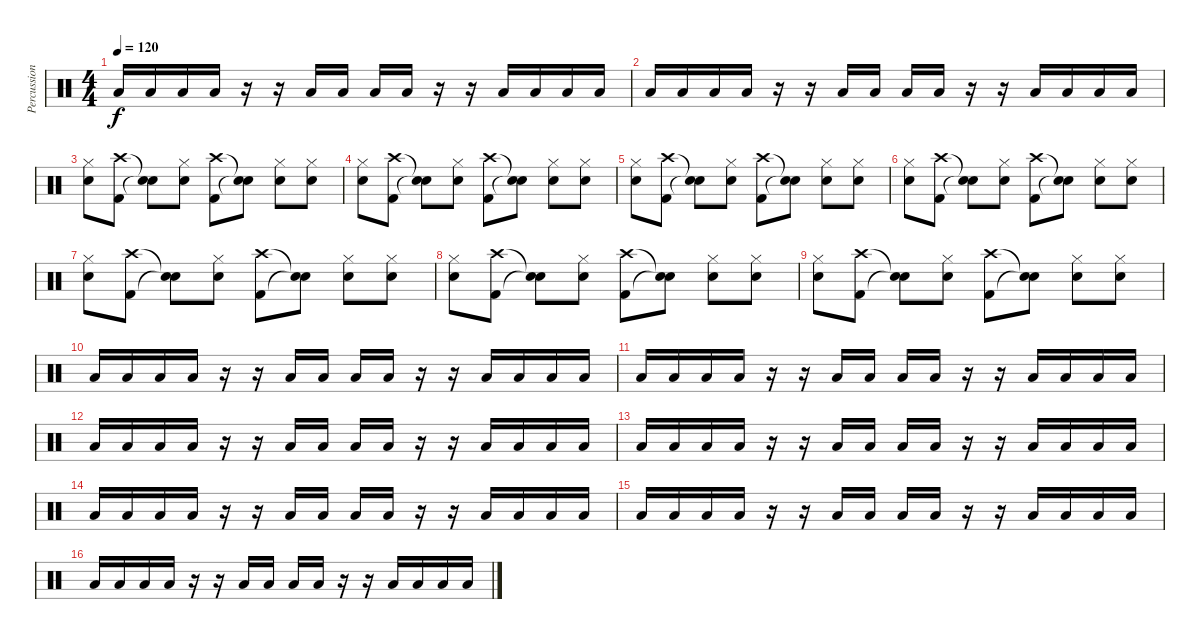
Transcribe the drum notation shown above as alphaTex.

\track ("Percussions" "Percussion") {instrument percussion}
\staff {score}
\articulation defaults
\ts (4 4)
\tempo 120
\clef neutral
\ks c "Low Floor Tom (hit)".16{dy f} "Low Floor Tom (hit)".16 "Low Floor Tom (hit)".16 "Low Floor Tom (hit)".16
r.16 r.16 "Low Floor Tom (hit)".16 "Low Floor Tom (hit)".16 "Low Floor Tom (hit)".16 "Low Floor Tom (hit)".16 r.16 r.16 "Low Floor Tom (hit)".16 "Low Floor Tom (hit)".16 "Low Floor Tom (hit)".16 "Low Floor Tom (hit)".16 |
"Low Floor Tom (hit)".16 "Low Floor Tom (hit)".16 "Low Floor Tom (hit)".16 "Low Floor Tom (hit)".16 r.16 r.16 "Low Floor Tom (hit)".16 "Low Floor Tom (hit)".16 "Low Floor Tom (hit)".16 "Low Floor Tom (hit)".16 r.16 r.16 "Low Floor Tom (hit)".16 "Low Floor Tom (hit)".16 "Low Floor Tom (hit)".16 "Low Floor Tom (hit)".16 |
("Hi-Hat (closed)" "Snare (hit) 2").8 ("Crash high (hit)" "Kick (hit) 2").8 ("Snare (hit)"{t} "Snare (hit)"{t}).8 ("Hi-Hat (closed)" "Snare (hit) 2").8 ("Crash high (hit)" "Kick (hit) 2").8 ("Snare (hit)"{t} "Snare (hit)"{t}).8 ("Hi-Hat (closed)" "Snare (hit) 2").8 ("Hi-Hat (closed)" "Snare (hit) 2").8 |
("Hi-Hat (closed)" "Snare (hit) 2").8 ("Crash high (hit)" "Kick (hit) 2").8 ("Snare (hit)"{t} "Snare (hit)"{t}).8 ("Hi-Hat (closed)" "Snare (hit) 2").8 ("Crash high (hit)" "Kick (hit) 2").8 ("Snare (hit)"{t} "Snare (hit)"{t}).8 ("Hi-Hat (closed)" "Snare (hit) 2").8 ("Hi-Hat (closed)" "Snare (hit) 2").8 |
("Hi-Hat (closed)" "Snare (hit) 2").8 ("Crash high (hit)" "Kick (hit) 2").8 ("Snare (hit)"{t} "Snare (hit)"{t}).8 ("Hi-Hat (closed)" "Snare (hit) 2").8 ("Crash high (hit)" "Kick (hit) 2").8 ("Snare (hit)"{t} "Snare (hit)"{t}).8 ("Hi-Hat (closed)" "Snare (hit) 2").8 ("Hi-Hat (closed)" "Snare (hit) 2").8 |
("Hi-Hat (closed)" "Snare (hit) 2").8 ("Crash high (hit)" "Kick (hit) 2").8 ("Snare (hit)"{t} "Snare (hit)"{t}).8 ("Hi-Hat (closed)" "Snare (hit) 2").8 ("Crash high (hit)" "Kick (hit) 2").8 ("Snare (hit)"{t} "Snare (hit)"{t}).8 ("Hi-Hat (closed)" "Snare (hit) 2").8 ("Hi-Hat (closed)" "Snare (hit) 2").8 |
("Hi-Hat (closed)" "Snare (hit) 2").8 ("Crash high (hit)" "Kick (hit) 2").8 ("Snare (hit)"{t} "Snare (hit)"{t}).8 ("Hi-Hat (closed)" "Snare (hit) 2").8 ("Crash high (hit)" "Kick (hit) 2").8 ("Snare (hit)"{t} "Snare (hit)"{t}).8 ("Hi-Hat (closed)" "Snare (hit) 2").8 ("Hi-Hat (closed)" "Snare (hit) 2").8 |
("Hi-Hat (closed)" "Snare (hit) 2").8 ("Crash high (hit)" "Kick (hit) 2").8 ("Snare (hit)"{t} "Snare (hit)"{t}).8 ("Hi-Hat (closed)" "Snare (hit) 2").8 ("Crash high (hit)" "Kick (hit) 2").8 ("Snare (hit)"{t} "Snare (hit)"{t}).8 ("Hi-Hat (closed)" "Snare (hit) 2").8 ("Hi-Hat (closed)" "Snare (hit) 2").8 |
("Hi-Hat (closed)" "Snare (hit) 2").8 ("Crash high (hit)" "Kick (hit) 2").8 ("Snare (hit)"{t} "Snare (hit)"{t}).8 ("Hi-Hat (closed)" "Snare (hit) 2").8 ("Crash high (hit)" "Kick (hit) 2").8 ("Snare (hit)"{t} "Snare (hit)"{t}).8 ("Hi-Hat (closed)" "Snare (hit) 2").8 ("Hi-Hat (closed)" "Snare (hit) 2").8 |
"Low Floor Tom (hit)".16 "Low Floor Tom (hit)".16 "Low Floor Tom (hit)".16 "Low Floor Tom (hit)".16 r.16 r.16 "Low Floor Tom (hit)".16 "Low Floor Tom (hit)".16 "Low Floor Tom (hit)".16 "Low Floor Tom (hit)".16 r.16 r.16 "Low Floor Tom (hit)".16 "Low Floor Tom (hit)".16 "Low Floor Tom (hit)".16 "Low Floor Tom (hit)".16 |
"Low Floor Tom (hit)".16 "Low Floor Tom (hit)".16 "Low Floor Tom (hit)".16 "Low Floor Tom (hit)".16 r.16 r.16 "Low Floor Tom (hit)".16 "Low Floor Tom (hit)".16 "Low Floor Tom (hit)".16 "Low Floor Tom (hit)".16 r.16 r.16 "Low Floor Tom (hit)".16 "Low Floor Tom (hit)".16 "Low Floor Tom (hit)".16 "Low Floor Tom (hit)".16 |
"Low Floor Tom (hit)".16 "Low Floor Tom (hit)".16 "Low Floor Tom (hit)".16 "Low Floor Tom (hit)".16 r.16 r.16 "Low Floor Tom (hit)".16 "Low Floor Tom (hit)".16 "Low Floor Tom (hit)".16 "Low Floor Tom (hit)".16 r.16 r.16 "Low Floor Tom (hit)".16 "Low Floor Tom (hit)".16 "Low Floor Tom (hit)".16 "Low Floor Tom (hit)".16 |
"Low Floor Tom (hit)".16 "Low Floor Tom (hit)".16 "Low Floor Tom (hit)".16 "Low Floor Tom (hit)".16 r.16 r.16 "Low Floor Tom (hit)".16 "Low Floor Tom (hit)".16 "Low Floor Tom (hit)".16 "Low Floor Tom (hit)".16 r.16 r.16 "Low Floor Tom (hit)".16 "Low Floor Tom (hit)".16 "Low Floor Tom (hit)".16 "Low Floor Tom (hit)".16 |
"Low Floor Tom (hit)".16 "Low Floor Tom (hit)".16 "Low Floor Tom (hit)".16 "Low Floor Tom (hit)".16 r.16 r.16 "Low Floor Tom (hit)".16 "Low Floor Tom (hit)".16 "Low Floor Tom (hit)".16 "Low Floor Tom (hit)".16 r.16 r.16 "Low Floor Tom (hit)".16 "Low Floor Tom (hit)".16 "Low Floor Tom (hit)".16 "Low Floor Tom (hit)".16 |
"Low Floor Tom (hit)".16 "Low Floor Tom (hit)".16 "Low Floor Tom (hit)".16 "Low Floor Tom (hit)".16 r.16 r.16 "Low Floor Tom (hit)".16 "Low Floor Tom (hit)".16 "Low Floor Tom (hit)".16 "Low Floor Tom (hit)".16 r.16 r.16 "Low Floor Tom (hit)".16 "Low Floor Tom (hit)".16 "Low Floor Tom (hit)".16 "Low Floor Tom (hit)".16 |
"Low Floor Tom (hit)".16 "Low Floor Tom (hit)".16 "Low Floor Tom (hit)".16 "Low Floor Tom (hit)".16 r.16 r.16 "Low Floor Tom (hit)".16 "Low Floor Tom (hit)".16 "Low Floor Tom (hit)".16 "Low Floor Tom (hit)".16 r.16 r.16 "Low Floor Tom (hit)".16 "Low Floor Tom (hit)".16 "Low Floor Tom (hit)".16 "Low Floor Tom (hit)".16
